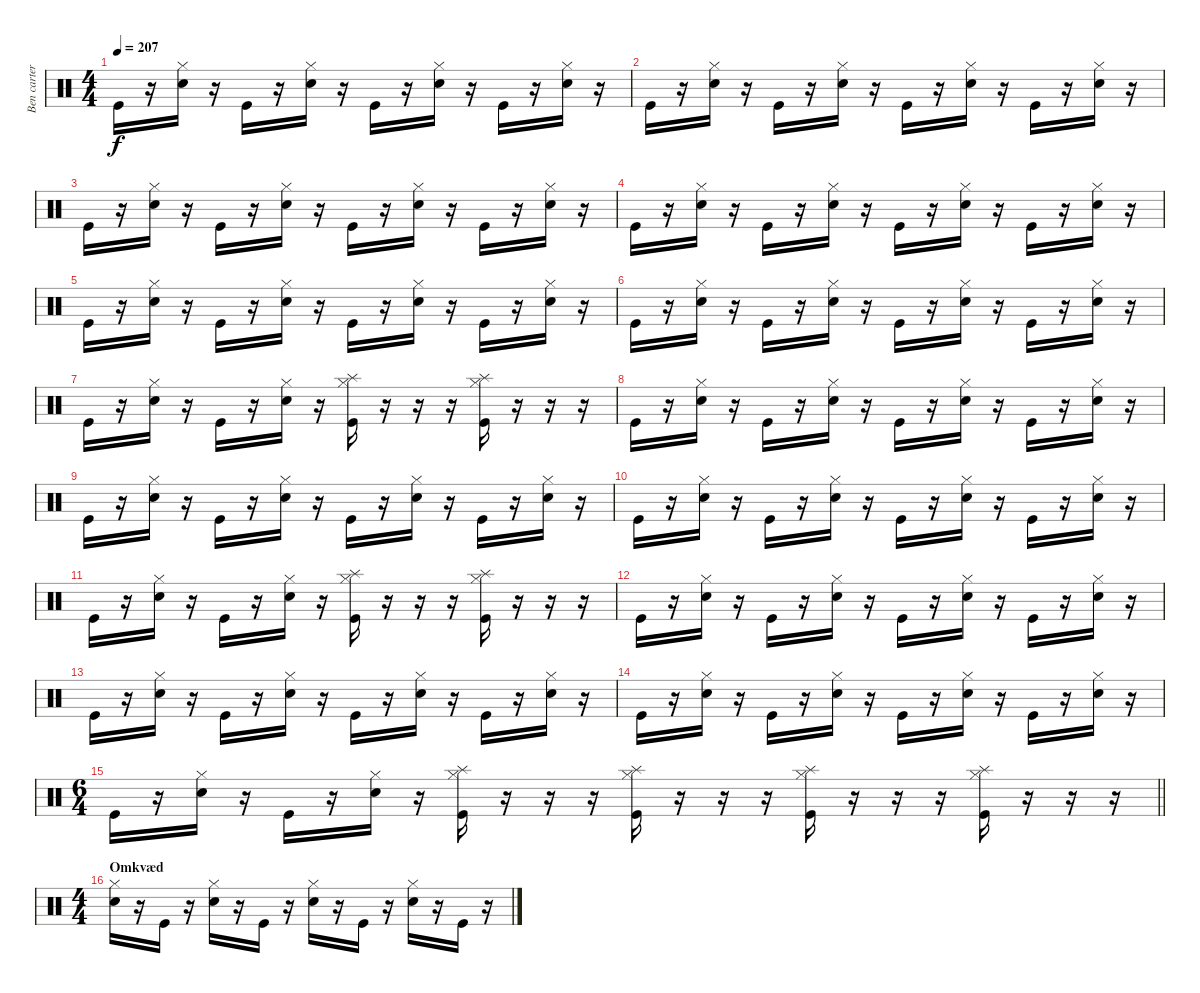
\track ("Ben carter" "Ben carter") {instrument percussion}
\staff {score}
\articulation defaults
\ts (4 4)
\tempo 207
\clef neutral
\ks c "Kick (hit)".16{dy f}
r.16 ("Hi-Hat (closed)" "Electric Snare (hit)").16 r.16 "Kick (hit)".16 r.16 ("Hi-Hat (closed)" "Electric Snare (hit)").16 r.16 "Kick (hit)".16 r.16 ("Hi-Hat (closed)" "Electric Snare (hit)").16 r.16 "Kick (hit)".16 r.16 ("Hi-Hat (closed)" "Electric Snare (hit)").16 r.16 |
"Kick (hit)".16 r.16 ("Hi-Hat (closed)" "Electric Snare (hit)").16 r.16 "Kick (hit)".16 r.16 ("Hi-Hat (closed)" "Electric Snare (hit)").16 r.16 "Kick (hit)".16 r.16 ("Hi-Hat (closed)" "Electric Snare (hit)").16 r.16 "Kick (hit)".16 r.16 ("Hi-Hat (closed)" "Electric Snare (hit)").16 r.16 |
"Kick (hit)".16 r.16 ("Hi-Hat (closed)" "Electric Snare (hit)").16 r.16 "Kick (hit)".16 r.16 ("Hi-Hat (closed)" "Electric Snare (hit)").16 r.16 "Kick (hit)".16 r.16 ("Hi-Hat (closed)" "Electric Snare (hit)").16 r.16 "Kick (hit)".16 r.16 ("Hi-Hat (closed)" "Electric Snare (hit)").16 r.16 |
"Kick (hit)".16 r.16 ("Hi-Hat (closed)" "Electric Snare (hit)").16 r.16 "Kick (hit)".16 r.16 ("Hi-Hat (closed)" "Electric Snare (hit)").16 r.16 "Kick (hit)".16 r.16 ("Hi-Hat (closed)" "Electric Snare (hit)").16 r.16 "Kick (hit)".16 r.16 ("Hi-Hat (closed)" "Electric Snare (hit)").16 r.16 |
"Kick (hit)".16 r.16 ("Hi-Hat (closed)" "Electric Snare (hit)").16 r.16 "Kick (hit)".16 r.16 ("Hi-Hat (closed)" "Electric Snare (hit)").16 r.16 "Kick (hit)".16 r.16 ("Hi-Hat (closed)" "Electric Snare (hit)").16 r.16 "Kick (hit)".16 r.16 ("Hi-Hat (closed)" "Electric Snare (hit)").16 r.16 |
"Kick (hit)".16 r.16 ("Hi-Hat (closed)" "Electric Snare (hit)").16 r.16 "Kick (hit)".16 r.16 ("Hi-Hat (closed)" "Electric Snare (hit)").16 r.16 "Kick (hit)".16 r.16 ("Hi-Hat (closed)" "Electric Snare (hit)").16 r.16 "Kick (hit)".16 r.16 ("Hi-Hat (closed)" "Electric Snare (hit)").16 r.16 |
"Kick (hit)".16 r.16 ("Hi-Hat (closed)" "Electric Snare (hit)").16 r.16 "Kick (hit)".16 r.16 ("Hi-Hat (closed)" "Electric Snare (hit)").16 r.16 ("Hi-Hat (closed)" "Splash (hit)" "Kick (hit)").16 r.16 r.16 r.16 ("Hi-Hat (closed)" "Splash (hit)" "Kick (hit)").16 r.16 r.16 r.16 |
"Kick (hit)".16 r.16 ("Hi-Hat (closed)" "Electric Snare (hit)").16 r.16 "Kick (hit)".16 r.16 ("Hi-Hat (closed)" "Electric Snare (hit)").16 r.16 "Kick (hit)".16 r.16 ("Hi-Hat (closed)" "Electric Snare (hit)").16 r.16 "Kick (hit)".16 r.16 ("Hi-Hat (closed)" "Electric Snare (hit)").16 r.16 |
"Kick (hit)".16 r.16 ("Hi-Hat (closed)" "Electric Snare (hit)").16 r.16 "Kick (hit)".16 r.16 ("Hi-Hat (closed)" "Electric Snare (hit)").16 r.16 "Kick (hit)".16 r.16 ("Hi-Hat (closed)" "Electric Snare (hit)").16 r.16 "Kick (hit)".16 r.16 ("Hi-Hat (closed)" "Electric Snare (hit)").16 r.16 |
"Kick (hit)".16 r.16 ("Hi-Hat (closed)" "Electric Snare (hit)").16 r.16 "Kick (hit)".16 r.16 ("Hi-Hat (closed)" "Electric Snare (hit)").16 r.16 "Kick (hit)".16 r.16 ("Hi-Hat (closed)" "Electric Snare (hit)").16 r.16 "Kick (hit)".16 r.16 ("Hi-Hat (closed)" "Electric Snare (hit)").16 r.16 |
"Kick (hit)".16 r.16 ("Hi-Hat (closed)" "Electric Snare (hit)").16 r.16 "Kick (hit)".16 r.16 ("Hi-Hat (closed)" "Electric Snare (hit)").16 r.16 ("Hi-Hat (closed)" "Splash (hit)" "Kick (hit)").16 r.16 r.16 r.16 ("Hi-Hat (closed)" "Splash (hit)" "Kick (hit)").16 r.16 r.16 r.16 |
"Kick (hit)".16 r.16 ("Hi-Hat (closed)" "Electric Snare (hit)").16 r.16 "Kick (hit)".16 r.16 ("Hi-Hat (closed)" "Electric Snare (hit)").16 r.16 "Kick (hit)".16 r.16 ("Hi-Hat (closed)" "Electric Snare (hit)").16 r.16 "Kick (hit)".16 r.16 ("Hi-Hat (closed)" "Electric Snare (hit)").16 r.16 |
"Kick (hit)".16 r.16 ("Hi-Hat (closed)" "Electric Snare (hit)").16 r.16 "Kick (hit)".16 r.16 ("Hi-Hat (closed)" "Electric Snare (hit)").16 r.16 "Kick (hit)".16 r.16 ("Hi-Hat (closed)" "Electric Snare (hit)").16 r.16 "Kick (hit)".16 r.16 ("Hi-Hat (closed)" "Electric Snare (hit)").16 r.16 |
"Kick (hit)".16 r.16 ("Hi-Hat (closed)" "Electric Snare (hit)").16 r.16 "Kick (hit)".16 r.16 ("Hi-Hat (closed)" "Electric Snare (hit)").16 r.16 "Kick (hit)".16 r.16 ("Hi-Hat (closed)" "Electric Snare (hit)").16 r.16 "Kick (hit)".16 r.16 ("Hi-Hat (closed)" "Electric Snare (hit)").16 r.16 |
\ts (6 4)
\barLineRight lightlight "Kick (hit)".16
r.16 ("Hi-Hat (closed)" "Electric Snare (hit)").16 r.16 "Kick (hit)".16 r.16 ("Hi-Hat (closed)" "Electric Snare (hit)").16 r.16 ("Hi-Hat (closed)" "Splash (hit)" "Kick (hit)").16 r.16 r.16 r.16 ("Hi-Hat (closed)" "Splash (hit)" "Kick (hit)").16 r.16 r.16 r.16 ("Hi-Hat (closed)" "Splash (hit)" "Kick (hit)").16 r.16 r.16 r.16 ("Hi-Hat (closed)" "Splash (hit)" "Kick (hit)").16 r.16 r.16 r.16 |
\ts (4 4)
\section ("" "Omkvæd")
("Hi-Hat (closed)" "Electric Snare (hit)").16 r.16 "Kick (hit)".16 r.16 ("Hi-Hat (closed)" "Electric Snare (hit)").16 r.16 "Kick (hit)".16 r.16 ("Hi-Hat (closed)" "Electric Snare (hit)").16 r.16 "Kick (hit)".16 r.16 ("Hi-Hat (closed)" "Electric Snare (hit)").16 r.16 "Kick (hit)".16 r.16
